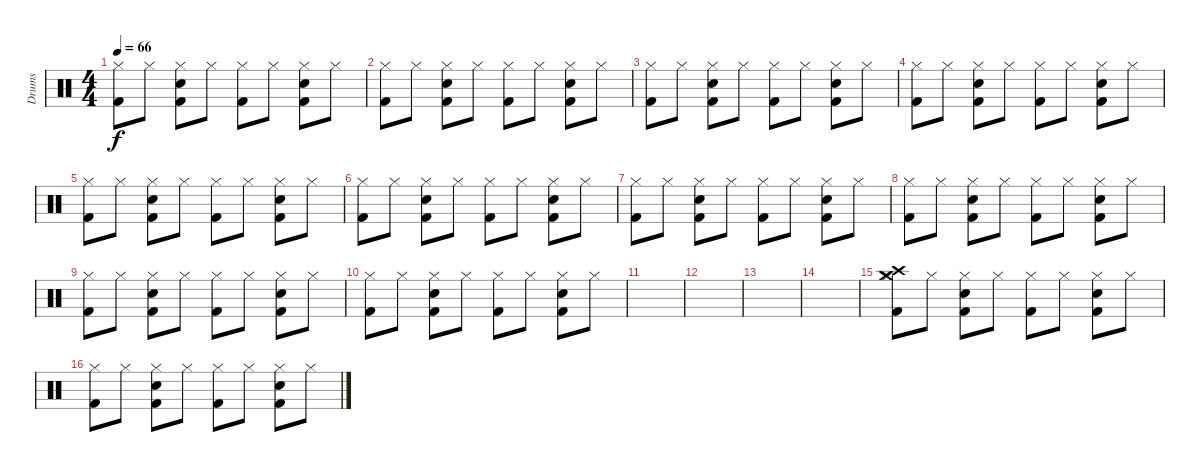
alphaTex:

\track ("Drums" "Drums") {instrument percussion}
\staff {score}
\articulation defaults
\ts (4 4)
\tempo 66
\clef neutral
\ks c
("Kick (hit) 2" "Hi-Hat (closed)").8{dy f} "Hi-Hat (closed)".8 ("Kick (hit) 2" "Hi-Hat (closed)" "Snare (hit) 2").8 "Hi-Hat (closed)".8 ("Kick (hit) 2" "Hi-Hat (closed)").8 "Hi-Hat (closed)".8 ("Kick (hit) 2" "Hi-Hat (closed)" "Snare (hit) 2").8 "Hi-Hat (closed)".8 |
("Kick (hit) 2" "Hi-Hat (closed)").8 "Hi-Hat (closed)".8 ("Kick (hit) 2" "Hi-Hat (closed)" "Snare (hit) 2").8 "Hi-Hat (closed)".8 ("Kick (hit) 2" "Hi-Hat (closed)").8 "Hi-Hat (closed)".8 ("Kick (hit) 2" "Hi-Hat (closed)" "Snare (hit) 2").8 "Hi-Hat (closed)".8 |
("Kick (hit) 2" "Hi-Hat (closed)").8 "Hi-Hat (closed)".8 ("Kick (hit) 2" "Hi-Hat (closed)" "Snare (hit) 2").8 "Hi-Hat (closed)".8 ("Kick (hit) 2" "Hi-Hat (closed)").8 "Hi-Hat (closed)".8 ("Kick (hit) 2" "Hi-Hat (closed)" "Snare (hit) 2").8 "Hi-Hat (closed)".8 |
("Kick (hit) 2" "Hi-Hat (closed)").8 "Hi-Hat (closed)".8 ("Kick (hit) 2" "Hi-Hat (closed)" "Snare (hit) 2").8 "Hi-Hat (closed)".8 ("Kick (hit) 2" "Hi-Hat (closed)").8 "Hi-Hat (closed)".8 ("Kick (hit) 2" "Hi-Hat (closed)" "Snare (hit) 2").8 "Hi-Hat (closed)".8 |
("Kick (hit) 2" "Hi-Hat (closed)").8 "Hi-Hat (closed)".8 ("Kick (hit) 2" "Hi-Hat (closed)" "Snare (hit) 2").8 "Hi-Hat (closed)".8 ("Kick (hit) 2" "Hi-Hat (closed)").8 "Hi-Hat (closed)".8 ("Kick (hit) 2" "Hi-Hat (closed)" "Snare (hit) 2").8 "Hi-Hat (closed)".8 |
("Kick (hit) 2" "Hi-Hat (closed)").8 "Hi-Hat (closed)".8 ("Kick (hit) 2" "Hi-Hat (closed)" "Snare (hit) 2").8 "Hi-Hat (closed)".8 ("Kick (hit) 2" "Hi-Hat (closed)").8 "Hi-Hat (closed)".8 ("Kick (hit) 2" "Hi-Hat (closed)" "Snare (hit) 2").8 "Hi-Hat (closed)".8 |
("Kick (hit) 2" "Hi-Hat (closed)").8 "Hi-Hat (closed)".8 ("Kick (hit) 2" "Hi-Hat (closed)" "Snare (hit) 2").8 "Hi-Hat (closed)".8 ("Kick (hit) 2" "Hi-Hat (closed)").8 "Hi-Hat (closed)".8 ("Kick (hit) 2" "Hi-Hat (closed)" "Snare (hit) 2").8 "Hi-Hat (closed)".8 |
("Kick (hit) 2" "Hi-Hat (closed)").8 "Hi-Hat (closed)".8 ("Kick (hit) 2" "Hi-Hat (closed)" "Snare (hit) 2").8 "Hi-Hat (closed)".8 ("Kick (hit) 2" "Hi-Hat (closed)").8 "Hi-Hat (closed)".8 ("Kick (hit) 2" "Hi-Hat (closed)" "Snare (hit) 2").8 "Hi-Hat (closed)".8 |
("Kick (hit) 2" "Hi-Hat (closed)").8 "Hi-Hat (closed)".8 ("Kick (hit) 2" "Hi-Hat (closed)" "Snare (hit) 2").8 "Hi-Hat (closed)".8 ("Kick (hit) 2" "Hi-Hat (closed)").8 "Hi-Hat (closed)".8 ("Kick (hit) 2" "Hi-Hat (closed)" "Snare (hit) 2").8 "Hi-Hat (closed)".8 |
("Kick (hit) 2" "Hi-Hat (closed)").8 "Hi-Hat (closed)".8 ("Kick (hit) 2" "Hi-Hat (closed)" "Snare (hit) 2").8 "Hi-Hat (closed)".8 ("Kick (hit) 2" "Hi-Hat (closed)").8 "Hi-Hat (closed)".8 ("Kick (hit) 2" "Hi-Hat (closed)" "Snare (hit) 2").8 "Hi-Hat (closed)".8 |
|
|
|
|
("Kick (hit) 2" "Hi-Hat (closed)" "Crash high (hit)" "Crash medium (hit)").8 "Hi-Hat (closed)".8 ("Kick (hit) 2" "Hi-Hat (closed)" "Snare (hit) 2").8 "Hi-Hat (closed)".8 ("Kick (hit) 2" "Hi-Hat (closed)").8 "Hi-Hat (closed)".8 ("Kick (hit) 2" "Hi-Hat (closed)" "Snare (hit) 2").8 "Hi-Hat (closed)".8 |
("Kick (hit) 2" "Hi-Hat (closed)").8 "Hi-Hat (closed)".8 ("Kick (hit) 2" "Hi-Hat (closed)" "Snare (hit) 2").8 "Hi-Hat (closed)".8 ("Kick (hit) 2" "Hi-Hat (closed)").8 "Hi-Hat (closed)".8 ("Kick (hit) 2" "Hi-Hat (closed)" "Snare (hit) 2").8 "Hi-Hat (closed)".8
